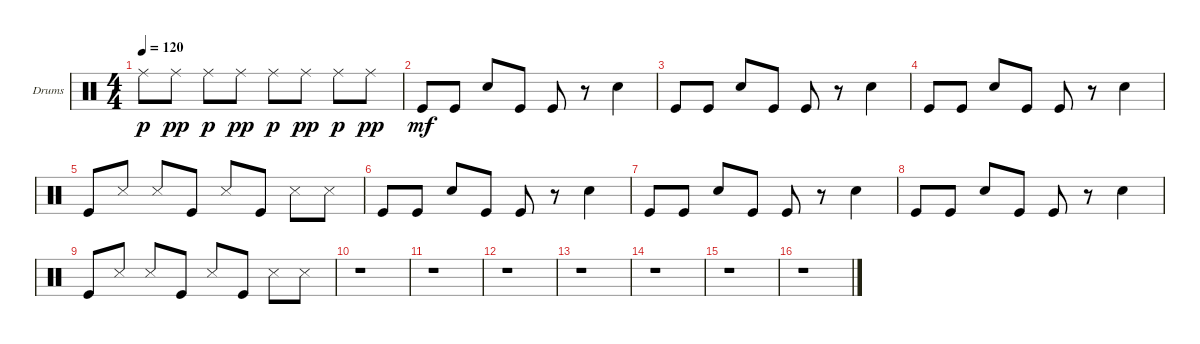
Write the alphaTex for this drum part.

\defaultSystemsLayout 4
\bracketExtendMode groupsimilarinstruments
\firstSystemTrackNameOrientation horizontal
\otherSystemsTrackNameOrientation horizontal
\track ("Drumkit" "Drums") {instrument percussion}
\staff {score}
\articulation defaults
\ts (4 4)
\tempo 120
\clef neutral
\ks c "Ride (middle)".8{dy p} "Ride (middle)".8{dy pp} "Ride (middle)".8{dy p} "Ride (middle)".8{dy pp} "Ride (middle)".8{dy p} "Ride (middle)".8{dy pp} "Ride (middle)".8{dy p} "Ride (middle)".8{dy pp}
|
"Kick (hit)".8{dy mf} "Kick (hit)".8 "Snare (hit) 2".8 "Kick (hit)".8 "Kick (hit)".8 r.8 "Snare (hit) 2".4 |
"Kick (hit)".8 "Kick (hit)".8 "Snare (hit) 2".8 "Kick (hit)".8 "Kick (hit)".8 r.8 "Snare (hit) 2".4 |
"Kick (hit)".8 "Kick (hit)".8 "Snare (hit) 2".8 "Kick (hit)".8 "Kick (hit)".8 r.8 "Snare (hit) 2".4 |
"Kick (hit)".8 "Snare (side stick) 3".8 "Snare (side stick) 3".8 "Kick (hit)".8 "Snare (side stick) 3".8 "Kick (hit)".8 "Snare (side stick) 3".8 "Snare (side stick) 3".8 |
"Kick (hit)".8 "Kick (hit)".8 "Snare (hit) 2".8 "Kick (hit)".8 "Kick (hit)".8 r.8 "Snare (hit) 2".4 |
"Kick (hit)".8 "Kick (hit)".8 "Snare (hit) 2".8 "Kick (hit)".8 "Kick (hit)".8 r.8 "Snare (hit) 2".4 |
"Kick (hit)".8 "Kick (hit)".8 "Snare (hit) 2".8 "Kick (hit)".8 "Kick (hit)".8 r.8 "Snare (hit) 2".4 |
"Kick (hit)".8 "Snare (side stick) 3".8 "Snare (side stick) 3".8 "Kick (hit)".8 "Snare (side stick) 3".8 "Kick (hit)".8 "Snare (side stick) 3".8 "Snare (side stick) 3".8 |
r.1 |
r.1 |
r.1 |
r.1 |
r.1 |
r.1 |
r.1
